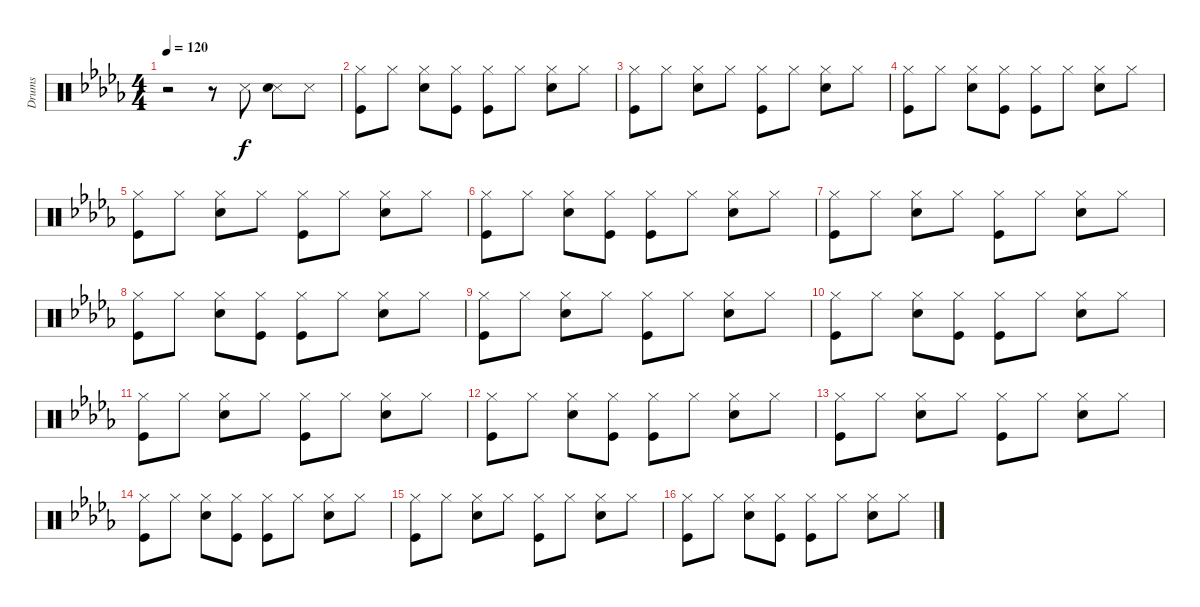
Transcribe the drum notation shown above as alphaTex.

\track ("Drums" "Drums") {instrument percussion}
\staff {score}
\articulation defaults
\ts (4 4)
\tempo 120
\clef neutral
\ks db
r.2{dy f} r.8 "Snare (side stick) 3".8 ("Snare (side stick) 3" "Snare (hit) 2").8 "Snare (side stick) 3".8 |
("Hi-Hat (closed)" "Kick (hit)").8 "Hi-Hat (closed)".8 ("Hi-Hat (closed)" "Snare (hit) 2").8 ("Hi-Hat (closed)" "Kick (hit)").8 ("Hi-Hat (closed)" "Kick (hit)").8 "Hi-Hat (closed)".8 ("Hi-Hat (closed)" "Snare (hit) 2").8 "Hi-Hat (closed)".8 |
("Hi-Hat (closed)" "Kick (hit)").8 "Hi-Hat (closed)".8 ("Hi-Hat (closed)" "Snare (hit) 2").8 "Hi-Hat (closed)".8 ("Hi-Hat (closed)" "Kick (hit)").8 "Hi-Hat (closed)".8 ("Hi-Hat (closed)" "Snare (hit) 2").8 "Hi-Hat (closed)".8 |
("Hi-Hat (closed)" "Kick (hit)").8 "Hi-Hat (closed)".8 ("Hi-Hat (closed)" "Snare (hit) 2").8 ("Hi-Hat (closed)" "Kick (hit)").8 ("Hi-Hat (closed)" "Kick (hit)").8 "Hi-Hat (closed)".8 ("Hi-Hat (closed)" "Snare (hit) 2").8 "Hi-Hat (closed)".8 |
("Hi-Hat (closed)" "Kick (hit)").8 "Hi-Hat (closed)".8 ("Hi-Hat (closed)" "Snare (hit) 2").8 "Hi-Hat (closed)".8 ("Hi-Hat (closed)" "Kick (hit)").8 "Hi-Hat (closed)".8 ("Hi-Hat (closed)" "Snare (hit) 2").8 "Hi-Hat (closed)".8 |
("Hi-Hat (closed)" "Kick (hit)").8 "Hi-Hat (closed)".8 ("Hi-Hat (closed)" "Snare (hit) 2").8 ("Hi-Hat (closed)" "Kick (hit)").8 ("Hi-Hat (closed)" "Kick (hit)").8 "Hi-Hat (closed)".8 ("Hi-Hat (closed)" "Snare (hit) 2").8 "Hi-Hat (closed)".8 |
("Hi-Hat (closed)" "Kick (hit)").8 "Hi-Hat (closed)".8 ("Hi-Hat (closed)" "Snare (hit) 2").8 "Hi-Hat (closed)".8 ("Hi-Hat (closed)" "Kick (hit)").8 "Hi-Hat (closed)".8 ("Hi-Hat (closed)" "Snare (hit) 2").8 "Hi-Hat (closed)".8 |
("Hi-Hat (closed)" "Kick (hit)").8 "Hi-Hat (closed)".8 ("Hi-Hat (closed)" "Snare (hit) 2").8 ("Hi-Hat (closed)" "Kick (hit)").8 ("Hi-Hat (closed)" "Kick (hit)").8 "Hi-Hat (closed)".8 ("Hi-Hat (closed)" "Snare (hit) 2").8 "Hi-Hat (closed)".8 |
("Hi-Hat (closed)" "Kick (hit)").8 "Hi-Hat (closed)".8 ("Hi-Hat (closed)" "Snare (hit) 2").8 "Hi-Hat (closed)".8 ("Hi-Hat (closed)" "Kick (hit)").8 "Hi-Hat (closed)".8 ("Hi-Hat (closed)" "Snare (hit) 2").8 "Hi-Hat (closed)".8 |
("Hi-Hat (closed)" "Kick (hit)").8 "Hi-Hat (closed)".8 ("Hi-Hat (closed)" "Snare (hit) 2").8 ("Hi-Hat (closed)" "Kick (hit)").8 ("Hi-Hat (closed)" "Kick (hit)").8 "Hi-Hat (closed)".8 ("Hi-Hat (closed)" "Snare (hit) 2").8 "Hi-Hat (closed)".8 |
("Hi-Hat (closed)" "Kick (hit)").8 "Hi-Hat (closed)".8 ("Hi-Hat (closed)" "Snare (hit) 2").8 "Hi-Hat (closed)".8 ("Hi-Hat (closed)" "Kick (hit)").8 "Hi-Hat (closed)".8 ("Hi-Hat (closed)" "Snare (hit) 2").8 "Hi-Hat (closed)".8 |
("Hi-Hat (closed)" "Kick (hit)").8 "Hi-Hat (closed)".8 ("Hi-Hat (closed)" "Snare (hit) 2").8 ("Hi-Hat (closed)" "Kick (hit)").8 ("Hi-Hat (closed)" "Kick (hit)").8 "Hi-Hat (closed)".8 ("Hi-Hat (closed)" "Snare (hit) 2").8 "Hi-Hat (closed)".8 |
("Hi-Hat (closed)" "Kick (hit)").8 "Hi-Hat (closed)".8 ("Hi-Hat (closed)" "Snare (hit) 2").8 "Hi-Hat (closed)".8 ("Hi-Hat (closed)" "Kick (hit)").8 "Hi-Hat (closed)".8 ("Hi-Hat (closed)" "Snare (hit) 2").8 "Hi-Hat (closed)".8 |
("Hi-Hat (closed)" "Kick (hit)").8 "Hi-Hat (closed)".8 ("Hi-Hat (closed)" "Snare (hit) 2").8 ("Hi-Hat (closed)" "Kick (hit)").8 ("Hi-Hat (closed)" "Kick (hit)").8 "Hi-Hat (closed)".8 ("Hi-Hat (closed)" "Snare (hit) 2").8 "Hi-Hat (closed)".8 |
("Hi-Hat (closed)" "Kick (hit)").8 "Hi-Hat (closed)".8 ("Hi-Hat (closed)" "Snare (hit) 2").8 "Hi-Hat (closed)".8 ("Hi-Hat (closed)" "Kick (hit)").8 "Hi-Hat (closed)".8 ("Hi-Hat (closed)" "Snare (hit) 2").8 "Hi-Hat (closed)".8 |
("Hi-Hat (closed)" "Kick (hit)").8 "Hi-Hat (closed)".8 ("Hi-Hat (closed)" "Snare (hit) 2").8 ("Hi-Hat (closed)" "Kick (hit)").8 ("Hi-Hat (closed)" "Kick (hit)").8 "Hi-Hat (closed)".8 ("Hi-Hat (closed)" "Snare (hit) 2").8 "Hi-Hat (closed)".8
